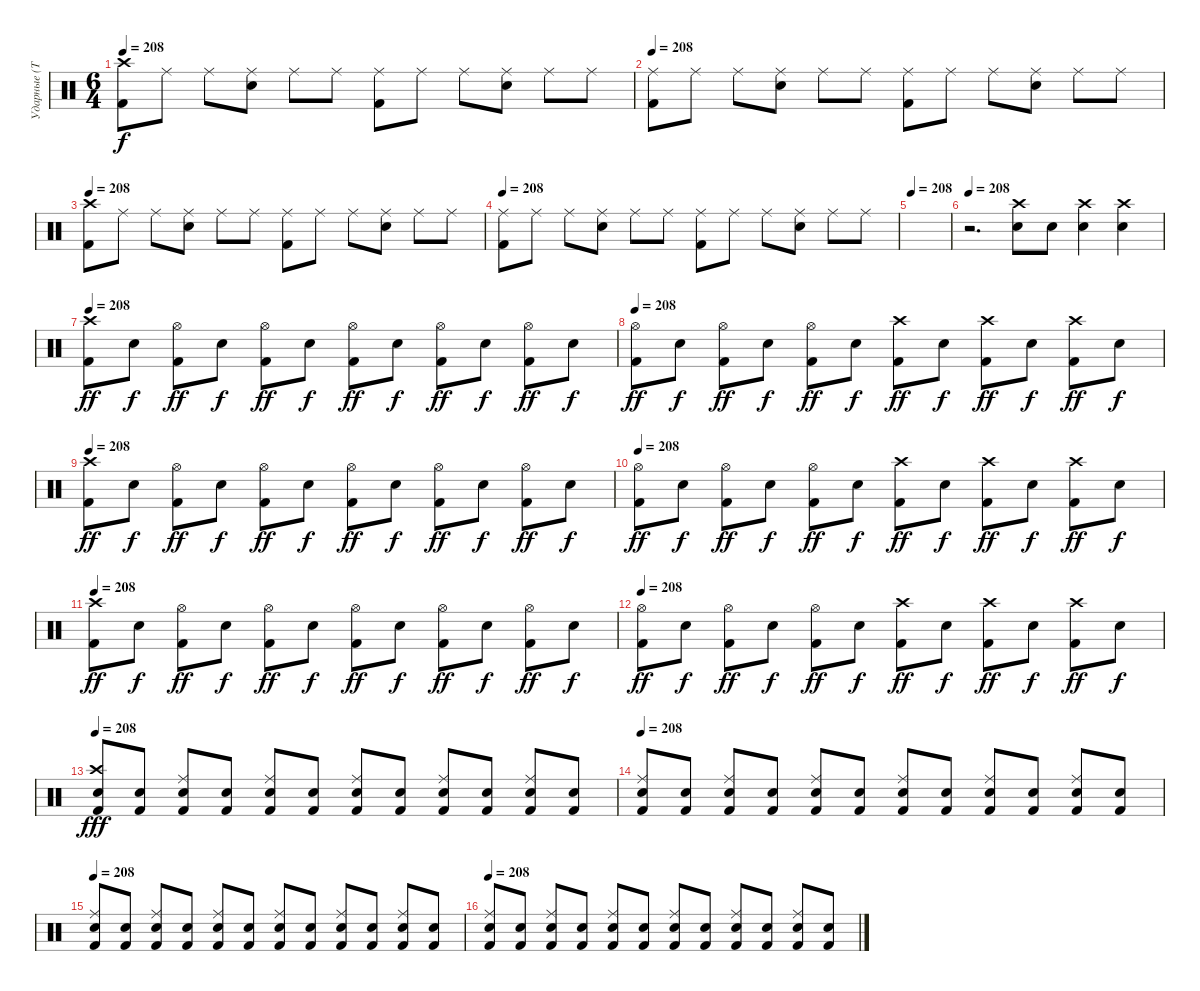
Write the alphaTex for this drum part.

\track ("Ударные (Тьодальв)" "Ударные (Т") {instrument percussion}
\staff {score}
\articulation defaults
\ts (6 4)
\tempo 208
\clef neutral
\ks c
("Kick (hit) 2" "Crash high (hit)").8{dy f} "Ride (middle)".8 "Ride (middle)".8 ("Snare (hit) 2" "Ride (middle)").8 "Ride (middle)".8 "Ride (middle)".8 ("Kick (hit) 2" "Ride (middle)").8 "Ride (middle)".8 "Ride (middle)".8 ("Snare (hit) 2" "Ride (middle)").8 "Ride (middle)".8 "Ride (middle)".8 |
\tempo 208
("Kick (hit) 2" "Ride (middle)").8 "Ride (middle)".8 "Ride (middle)".8 ("Snare (hit) 2" "Ride (middle)").8 "Ride (middle)".8 "Ride (middle)".8 ("Kick (hit) 2" "Ride (middle)").8 "Ride (middle)".8 "Ride (middle)".8 ("Snare (hit) 2" "Ride (middle)").8 "Ride (middle)".8 "Ride (middle)".8 |
\tempo 208
("Kick (hit) 2" "Crash high (hit)").8 "Ride (middle)".8 "Ride (middle)".8 ("Snare (hit) 2" "Ride (middle)").8 "Ride (middle)".8 "Ride (middle)".8 ("Kick (hit) 2" "Ride (middle)").8 "Ride (middle)".8 "Ride (middle)".8 ("Snare (hit) 2" "Ride (middle)").8 "Ride (middle)".8 "Ride (middle)".8 |
\tempo 208
("Kick (hit) 2" "Ride (middle)").8 "Ride (middle)".8 "Ride (middle)".8 ("Snare (hit) 2" "Ride (middle)").8 "Ride (middle)".8 "Ride (middle)".8 ("Kick (hit) 2" "Ride (middle)").8 "Ride (middle)".8 "Ride (middle)".8 ("Snare (hit) 2" "Ride (middle)").8 "Ride (middle)".8 "Ride (middle)".8 |
\tempo 210
\tempo 208
|
\tempo 208
r.2{d} ("Snare (hit) 2" "Crash high (hit)").8 "Snare (hit) 2".8 ("Snare (hit) 2" "Crash high (hit)").4 ("Snare (hit) 2" "Crash high (hit)").4 |
\tempo 208
("Kick (hit) 2" "Crash high (hit)").8{dy ff} "Snare (hit) 2".8{dy f} ("Kick (hit) 2" "Hi-Hat (open)").8{dy ff} "Snare (hit) 2".8{dy f} ("Kick (hit) 2" "Hi-Hat (open)").8{dy ff} "Snare (hit) 2".8{dy f} ("Kick (hit) 2" "Hi-Hat (open)").8{dy ff} "Snare (hit) 2".8{dy f} ("Kick (hit) 2" "Hi-Hat (open)").8{dy ff} "Snare (hit) 2".8{dy f} ("Kick (hit) 2" "Hi-Hat (open)").8{dy ff} "Snare (hit) 2".8{dy f} |
\tempo 208
("Kick (hit) 2" "Hi-Hat (open)").8{dy ff} "Snare (hit) 2".8{dy f} ("Kick (hit) 2" "Hi-Hat (open)").8{dy ff} "Snare (hit) 2".8{dy f} ("Kick (hit) 2" "Hi-Hat (open)").8{dy ff} "Snare (hit) 2".8{dy f} ("Kick (hit) 2" "Crash high (hit)").8{dy ff} "Snare (hit) 2".8{dy f} ("Kick (hit) 2" "Crash high (hit)").8{dy ff} "Snare (hit) 2".8{dy f} ("Kick (hit) 2" "Crash high (hit)").8{dy ff} "Snare (hit) 2".8{dy f} |
\tempo 208
("Kick (hit) 2" "Crash high (hit)").8{dy ff} "Snare (hit) 2".8{dy f} ("Kick (hit) 2" "Hi-Hat (open)").8{dy ff} "Snare (hit) 2".8{dy f} ("Kick (hit) 2" "Hi-Hat (open)").8{dy ff} "Snare (hit) 2".8{dy f} ("Kick (hit) 2" "Hi-Hat (open)").8{dy ff} "Snare (hit) 2".8{dy f} ("Kick (hit) 2" "Hi-Hat (open)").8{dy ff} "Snare (hit) 2".8{dy f} ("Kick (hit) 2" "Hi-Hat (open)").8{dy ff} "Snare (hit) 2".8{dy f} |
\tempo 208
("Kick (hit) 2" "Hi-Hat (open)").8{dy ff} "Snare (hit) 2".8{dy f} ("Kick (hit) 2" "Hi-Hat (open)").8{dy ff} "Snare (hit) 2".8{dy f} ("Kick (hit) 2" "Hi-Hat (open)").8{dy ff} "Snare (hit) 2".8{dy f} ("Kick (hit) 2" "Crash high (hit)").8{dy ff} "Snare (hit) 2".8{dy f} ("Kick (hit) 2" "Crash high (hit)").8{dy ff} "Snare (hit) 2".8{dy f} ("Kick (hit) 2" "Crash high (hit)").8{dy ff} "Snare (hit) 2".8{dy f} |
\tempo 208
("Kick (hit) 2" "Crash high (hit)").8{dy ff} "Snare (hit) 2".8{dy f} ("Kick (hit) 2" "Hi-Hat (open)").8{dy ff} "Snare (hit) 2".8{dy f} ("Kick (hit) 2" "Hi-Hat (open)").8{dy ff} "Snare (hit) 2".8{dy f} ("Kick (hit) 2" "Hi-Hat (open)").8{dy ff} "Snare (hit) 2".8{dy f} ("Kick (hit) 2" "Hi-Hat (open)").8{dy ff} "Snare (hit) 2".8{dy f} ("Kick (hit) 2" "Hi-Hat (open)").8{dy ff} "Snare (hit) 2".8{dy f} |
\tempo 208
("Kick (hit) 2" "Hi-Hat (open)").8{dy ff} "Snare (hit) 2".8{dy f} ("Kick (hit) 2" "Hi-Hat (open)").8{dy ff} "Snare (hit) 2".8{dy f} ("Kick (hit) 2" "Hi-Hat (open)").8{dy ff} "Snare (hit) 2".8{dy f} ("Kick (hit) 2" "Crash high (hit)").8{dy ff} "Snare (hit) 2".8{dy f} ("Kick (hit) 2" "Crash high (hit)").8{dy ff} "Snare (hit) 2".8{dy f} ("Kick (hit) 2" "Crash high (hit)").8{dy ff} "Snare (hit) 2".8{dy f} |
\tempo 208
("Kick (hit) 2" "Snare (hit) 2" "Crash high (hit)").8{dy fff} ("Kick (hit) 2" "Snare (hit) 2").8 ("Kick (hit) 2" "Snare (hit) 2" "Ride (middle)").8 ("Kick (hit) 2" "Snare (hit) 2").8 ("Kick (hit) 2" "Snare (hit) 2" "Ride (middle)").8 ("Kick (hit) 2" "Snare (hit) 2").8 ("Kick (hit) 2" "Snare (hit) 2" "Ride (middle)").8 ("Kick (hit) 2" "Snare (hit) 2").8 ("Kick (hit) 2" "Snare (hit) 2" "Ride (middle)").8 ("Kick (hit) 2" "Snare (hit) 2").8 ("Kick (hit) 2" "Snare (hit) 2" "Ride (middle)").8 ("Kick (hit) 2" "Snare (hit) 2").8 |
\tempo 208
("Kick (hit) 2" "Snare (hit) 2" "Ride (middle)").8 ("Kick (hit) 2" "Snare (hit) 2").8 ("Kick (hit) 2" "Snare (hit) 2" "Ride (middle)").8 ("Kick (hit) 2" "Snare (hit) 2").8 ("Kick (hit) 2" "Snare (hit) 2" "Ride (middle)").8 ("Kick (hit) 2" "Snare (hit) 2").8 ("Kick (hit) 2" "Snare (hit) 2" "Ride (middle)").8 ("Kick (hit) 2" "Snare (hit) 2").8 ("Kick (hit) 2" "Snare (hit) 2" "Ride (middle)").8 ("Kick (hit) 2" "Snare (hit) 2").8 ("Kick (hit) 2" "Snare (hit) 2" "Ride (middle)").8 ("Kick (hit) 2" "Snare (hit) 2").8 |
\tempo 208
("Kick (hit) 2" "Snare (hit) 2" "Ride (middle)").8 ("Kick (hit) 2" "Snare (hit) 2").8 ("Kick (hit) 2" "Snare (hit) 2" "Ride (middle)").8 ("Kick (hit) 2" "Snare (hit) 2").8 ("Kick (hit) 2" "Snare (hit) 2" "Ride (middle)").8 ("Kick (hit) 2" "Snare (hit) 2").8 ("Kick (hit) 2" "Snare (hit) 2" "Ride (middle)").8 ("Kick (hit) 2" "Snare (hit) 2").8 ("Kick (hit) 2" "Snare (hit) 2" "Ride (middle)").8 ("Kick (hit) 2" "Snare (hit) 2").8 ("Kick (hit) 2" "Snare (hit) 2" "Ride (middle)").8 ("Kick (hit) 2" "Snare (hit) 2").8 |
\tempo 208
("Kick (hit) 2" "Snare (hit) 2" "Ride (middle)").8 ("Kick (hit) 2" "Snare (hit) 2").8 ("Kick (hit) 2" "Snare (hit) 2" "Ride (middle)").8 ("Kick (hit) 2" "Snare (hit) 2").8 ("Kick (hit) 2" "Snare (hit) 2" "Ride (middle)").8 ("Kick (hit) 2" "Snare (hit) 2").8 ("Kick (hit) 2" "Snare (hit) 2" "Ride (middle)").8 ("Kick (hit) 2" "Snare (hit) 2").8 ("Kick (hit) 2" "Snare (hit) 2" "Ride (middle)").8 ("Kick (hit) 2" "Snare (hit) 2").8 ("Kick (hit) 2" "Snare (hit) 2" "Ride (middle)").8 ("Kick (hit) 2" "Snare (hit) 2").8
